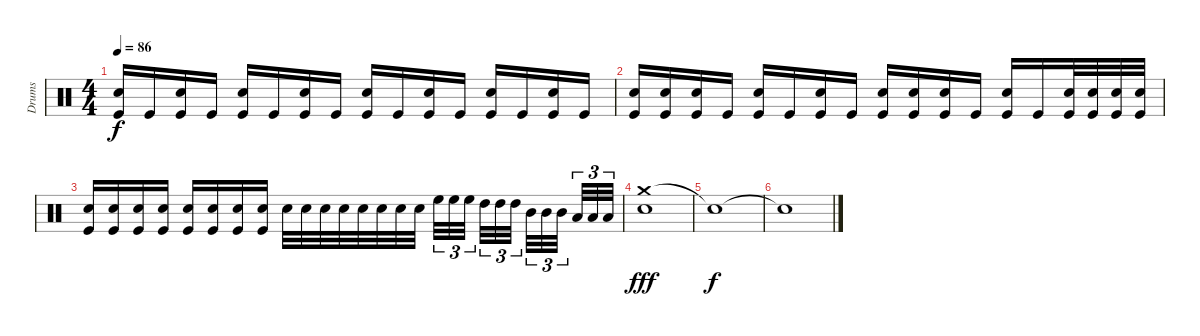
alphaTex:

\track ("Drums" "Drums") {instrument percussion}
\staff {score}
\articulation defaults
\ts (4 4)
\tempo 86
\clef neutral
\ks c
("Snare (hit) 2" "Kick (hit)").16{dy f balance 3} "Kick (hit)".16 ("Snare (hit) 2" "Kick (hit)").16{balance 13} "Kick (hit)".16 ("Snare (hit) 2" "Kick (hit)").16{balance 3} "Kick (hit)".16 ("Snare (hit) 2" "Kick (hit)").16{balance 13} "Kick (hit)".16 ("Snare (hit) 2" "Kick (hit)").16{balance 3} "Kick (hit)".16 ("Snare (hit) 2" "Kick (hit)").16{balance 13} "Kick (hit)".16 ("Snare (hit) 2" "Kick (hit)").16{balance 3} "Kick (hit)".16 ("Snare (hit) 2" "Kick (hit)").16{balance 13} "Kick (hit)".16 |
("Snare (hit) 2" "Kick (hit)").16{balance 3} ("Snare (hit) 2" "Kick (hit)").16 ("Snare (hit) 2" "Kick (hit)").16{balance 13} "Kick (hit)".16 ("Snare (hit) 2" "Kick (hit)").16{balance 3} "Kick (hit)".16 ("Snare (hit) 2" "Kick (hit)").16{balance 13} "Kick (hit)".16 ("Snare (hit) 2" "Kick (hit)").16{balance 8} ("Snare (hit) 2" "Kick (hit)").16 ("Snare (hit) 2" "Kick (hit)").16 "Kick (hit)".16 ("Snare (hit) 2" "Kick (hit)").16 "Kick (hit)".16 ("Snare (hit) 2" "Kick (hit)").32 ("Snare (hit) 2" "Kick (hit)").32 ("Snare (hit) 2" "Kick (hit)").32 ("Snare (hit) 2" "Kick (hit)").32 |
("Snare (hit) 2" "Kick (hit)").16{balance 8} ("Snare (hit) 2" "Kick (hit)").16 ("Snare (hit) 2" "Kick (hit)").16 ("Snare (hit) 2" "Kick (hit)").16 ("Snare (hit) 2" "Kick (hit)").16 ("Snare (hit) 2" "Kick (hit)").16 ("Snare (hit) 2" "Kick (hit)").16 ("Snare (hit) 2" "Kick (hit)").16 "Snare (hit) 2".32 "Snare (hit) 2".32 "Snare (hit) 2".32 "Snare (hit) 2".32 "Snare (hit) 2".32 "Snare (hit) 2".32 "Snare (hit) 2".32 "Snare (hit) 2".32 "High Floor Tom (hit)".32{tu (3 2)} "High Floor Tom (hit)".32{tu (3 2)} "High Floor Tom (hit)".32{tu (3 2)} "High Tom (hit)".32{tu (3 2)} "High Tom (hit)".32{tu (3 2)} "High Tom (hit)".32{tu (3 2)} "Mid Tom (hit)".32{tu (3 2)} "Mid Tom (hit)".32{tu (3 2)} "Mid Tom (hit)".32{tu (3 2)} "Low Tom (hit)".32{tu (3 2)} "Low Tom (hit)".32{tu (3 2)} "Low Tom (hit)".32{tu (3 2)} |
("Crash medium (hit)" "Snare (hit) 2").1{dy fff} |
"Snare (hit)"{t}.1{dy f volume 0} |
"Snare (hit)"{t}.1
